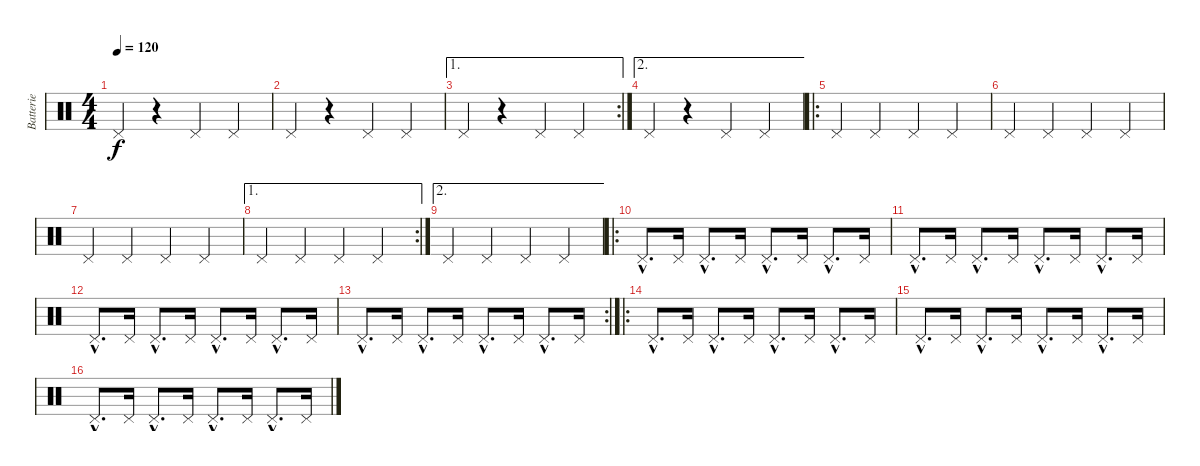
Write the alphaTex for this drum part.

\track ("Batterie" "Batterie") {instrument percussion}
\staff {score}
\articulation defaults
\ts (4 4)
\tempo 120
\clef neutral
\ks c "Pedal Hi-Hat (hit)".4{dy f}
r.4 "Pedal Hi-Hat (hit)".4 "Pedal Hi-Hat (hit)".4 |
"Pedal Hi-Hat (hit)".4 r.4 "Pedal Hi-Hat (hit)".4 "Pedal Hi-Hat (hit)".4 |
\ae 1
\rc 2 "Pedal Hi-Hat (hit)".4
r.4 "Pedal Hi-Hat (hit)".4 "Pedal Hi-Hat (hit)".4 |
\ae 2 "Pedal Hi-Hat (hit)".4
r.4 "Pedal Hi-Hat (hit)".4 "Pedal Hi-Hat (hit)".4 |
\ro "Pedal Hi-Hat (hit)".4 "Pedal Hi-Hat (hit)".4 "Pedal Hi-Hat (hit)".4 "Pedal Hi-Hat (hit)".4
|
"Pedal Hi-Hat (hit)".4 "Pedal Hi-Hat (hit)".4 "Pedal Hi-Hat (hit)".4 "Pedal Hi-Hat (hit)".4 |
"Pedal Hi-Hat (hit)".4 "Pedal Hi-Hat (hit)".4 "Pedal Hi-Hat (hit)".4 "Pedal Hi-Hat (hit)".4 |
\ae 1
\rc 2 "Pedal Hi-Hat (hit)".4 "Pedal Hi-Hat (hit)".4 "Pedal Hi-Hat (hit)".4 "Pedal Hi-Hat (hit)".4
|
\ae 2 "Pedal Hi-Hat (hit)".4 "Pedal Hi-Hat (hit)".4 "Pedal Hi-Hat (hit)".4 "Pedal Hi-Hat (hit)".4
|
\ro "Pedal Hi-Hat (hit)"{hac}.8{d} "Pedal Hi-Hat (hit)".16 "Pedal Hi-Hat (hit)"{hac}.8{d} "Pedal Hi-Hat (hit)".16 "Pedal Hi-Hat (hit)"{hac}.8{d} "Pedal Hi-Hat (hit)".16 "Pedal Hi-Hat (hit)"{hac}.8{d} "Pedal Hi-Hat (hit)".16
|
"Pedal Hi-Hat (hit)"{hac}.8{d} "Pedal Hi-Hat (hit)".16 "Pedal Hi-Hat (hit)"{hac}.8{d} "Pedal Hi-Hat (hit)".16 "Pedal Hi-Hat (hit)"{hac}.8{d} "Pedal Hi-Hat (hit)".16 "Pedal Hi-Hat (hit)"{hac}.8{d} "Pedal Hi-Hat (hit)".16 |
"Pedal Hi-Hat (hit)"{hac}.8{d} "Pedal Hi-Hat (hit)".16 "Pedal Hi-Hat (hit)"{hac}.8{d} "Pedal Hi-Hat (hit)".16 "Pedal Hi-Hat (hit)"{hac}.8{d} "Pedal Hi-Hat (hit)".16 "Pedal Hi-Hat (hit)"{hac}.8{d} "Pedal Hi-Hat (hit)".16 |
\rc 2 "Pedal Hi-Hat (hit)"{hac}.8{d} "Pedal Hi-Hat (hit)".16 "Pedal Hi-Hat (hit)"{hac}.8{d} "Pedal Hi-Hat (hit)".16 "Pedal Hi-Hat (hit)"{hac}.8{d} "Pedal Hi-Hat (hit)".16 "Pedal Hi-Hat (hit)"{hac}.8{d} "Pedal Hi-Hat (hit)".16
|
\ro "Pedal Hi-Hat (hit)"{hac}.8{d} "Pedal Hi-Hat (hit)".16 "Pedal Hi-Hat (hit)"{hac}.8{d} "Pedal Hi-Hat (hit)".16 "Pedal Hi-Hat (hit)"{hac}.8{d} "Pedal Hi-Hat (hit)".16 "Pedal Hi-Hat (hit)"{hac}.8{d} "Pedal Hi-Hat (hit)".16
|
"Pedal Hi-Hat (hit)"{hac}.8{d} "Pedal Hi-Hat (hit)".16 "Pedal Hi-Hat (hit)"{hac}.8{d} "Pedal Hi-Hat (hit)".16 "Pedal Hi-Hat (hit)"{hac}.8{d} "Pedal Hi-Hat (hit)".16 "Pedal Hi-Hat (hit)"{hac}.8{d} "Pedal Hi-Hat (hit)".16 |
"Pedal Hi-Hat (hit)"{hac}.8{d} "Pedal Hi-Hat (hit)".16 "Pedal Hi-Hat (hit)"{hac}.8{d} "Pedal Hi-Hat (hit)".16 "Pedal Hi-Hat (hit)"{hac}.8{d} "Pedal Hi-Hat (hit)".16 "Pedal Hi-Hat (hit)"{hac}.8{d} "Pedal Hi-Hat (hit)".16
